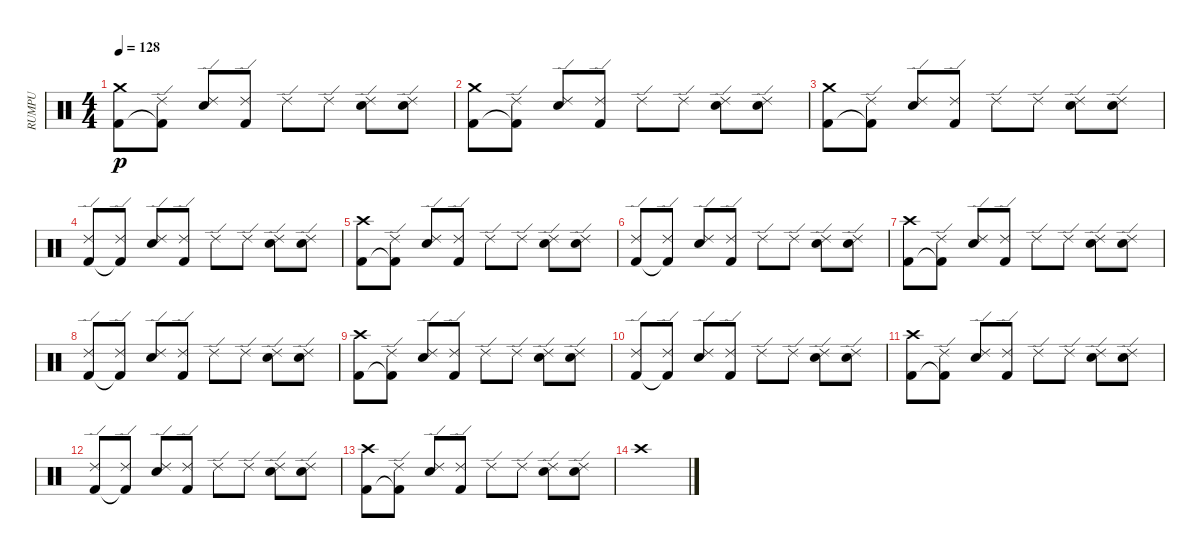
\track ("RUMPU" "RUMPU") {instrument percussion}
\staff {score}
\articulation defaults
\ts (4 4)
\tempo 128
\clef neutral
\ks c
("Crash medium (hit)" "Kick (hit) 2").8{dy p} ("Ride (edge) 2" "Kick (hit) 2"{t}).8 ("Ride (edge) 2" "Electric Snare (hit)").8 ("Ride (edge) 2" "Kick (hit) 2").8 "Ride (edge) 2".8 "Ride (edge) 2".8 ("Ride (edge) 2" "Electric Snare (hit)").8 ("Ride (edge) 2" "Electric Snare (hit)").8 |
("Crash medium (hit)" "Kick (hit) 2").8 ("Ride (edge) 2" "Kick (hit) 2"{t}).8 ("Ride (edge) 2" "Electric Snare (hit)").8 ("Ride (edge) 2" "Kick (hit) 2").8 "Ride (edge) 2".8 "Ride (edge) 2".8 ("Ride (edge) 2" "Electric Snare (hit)").8 ("Ride (edge) 2" "Electric Snare (hit)").8 |
("Crash medium (hit)" "Kick (hit) 2").8 ("Ride (edge) 2" "Kick (hit) 2"{t}).8 ("Ride (edge) 2" "Electric Snare (hit)").8 ("Ride (edge) 2" "Kick (hit) 2").8 "Ride (edge) 2".8 "Ride (edge) 2".8 ("Ride (edge) 2" "Electric Snare (hit)").8 ("Ride (edge) 2" "Electric Snare (hit)").8 |
("Ride (edge) 2" "Kick (hit) 2").8 ("Ride (edge) 2" "Kick (hit) 2"{t}).8 ("Ride (edge) 2" "Electric Snare (hit)").8 ("Ride (edge) 2" "Kick (hit) 2").8 "Ride (edge) 2".8 "Ride (edge) 2".8 ("Ride (edge) 2" "Electric Snare (hit)").8 ("Ride (edge) 2" "Electric Snare (hit)").8 |
("Crash high (hit)" "Kick (hit) 2").8 ("Ride (edge) 2" "Kick (hit) 2"{t}).8 ("Ride (edge) 2" "Electric Snare (hit)").8 ("Ride (edge) 2" "Kick (hit) 2").8 "Ride (edge) 2".8 "Ride (edge) 2".8 ("Ride (edge) 2" "Electric Snare (hit)").8 ("Ride (edge) 2" "Electric Snare (hit)").8 |
("Ride (edge) 2" "Kick (hit) 2").8 ("Ride (edge) 2" "Kick (hit) 2"{t}).8 ("Ride (edge) 2" "Electric Snare (hit)").8 ("Ride (edge) 2" "Kick (hit) 2").8 "Ride (edge) 2".8 "Ride (edge) 2".8 ("Ride (edge) 2" "Electric Snare (hit)").8 ("Ride (edge) 2" "Electric Snare (hit)").8 |
("Crash high (hit)" "Kick (hit) 2").8 ("Ride (edge) 2" "Kick (hit) 2"{t}).8 ("Ride (edge) 2" "Electric Snare (hit)").8 ("Ride (edge) 2" "Kick (hit) 2").8 "Ride (edge) 2".8 "Ride (edge) 2".8 ("Ride (edge) 2" "Electric Snare (hit)").8 ("Ride (edge) 2" "Electric Snare (hit)").8 |
("Ride (edge) 2" "Kick (hit) 2").8 ("Ride (edge) 2" "Kick (hit) 2"{t}).8 ("Ride (edge) 2" "Electric Snare (hit)").8 ("Ride (edge) 2" "Kick (hit) 2").8 "Ride (edge) 2".8 "Ride (edge) 2".8 ("Ride (edge) 2" "Electric Snare (hit)").8 ("Ride (edge) 2" "Electric Snare (hit)").8 |
("Crash high (hit)" "Kick (hit) 2").8 ("Ride (edge) 2" "Kick (hit) 2"{t}).8 ("Ride (edge) 2" "Electric Snare (hit)").8 ("Ride (edge) 2" "Kick (hit) 2").8 "Ride (edge) 2".8 "Ride (edge) 2".8 ("Ride (edge) 2" "Electric Snare (hit)").8 ("Ride (edge) 2" "Electric Snare (hit)").8 |
("Ride (edge) 2" "Kick (hit) 2").8 ("Ride (edge) 2" "Kick (hit) 2"{t}).8 ("Ride (edge) 2" "Electric Snare (hit)").8 ("Ride (edge) 2" "Kick (hit) 2").8 "Ride (edge) 2".8 "Ride (edge) 2".8 ("Ride (edge) 2" "Electric Snare (hit)").8 ("Ride (edge) 2" "Electric Snare (hit)").8 |
("Crash high (hit)" "Kick (hit) 2").8 ("Ride (edge) 2" "Kick (hit) 2"{t}).8 ("Ride (edge) 2" "Electric Snare (hit)").8 ("Ride (edge) 2" "Kick (hit) 2").8 "Ride (edge) 2".8 "Ride (edge) 2".8 ("Ride (edge) 2" "Electric Snare (hit)").8 ("Ride (edge) 2" "Electric Snare (hit)").8 |
("Ride (edge) 2" "Kick (hit) 2").8 ("Ride (edge) 2" "Kick (hit) 2"{t}).8 ("Ride (edge) 2" "Electric Snare (hit)").8 ("Ride (edge) 2" "Kick (hit) 2").8 "Ride (edge) 2".8 "Ride (edge) 2".8 ("Ride (edge) 2" "Electric Snare (hit)").8 ("Ride (edge) 2" "Electric Snare (hit)").8 |
("Crash high (hit)" "Kick (hit) 2").8 ("Ride (edge) 2" "Kick (hit) 2"{t}).8 ("Ride (edge) 2" "Electric Snare (hit)").8 ("Ride (edge) 2" "Kick (hit) 2").8 "Ride (edge) 2".8 "Ride (edge) 2".8 ("Ride (edge) 2" "Electric Snare (hit)").8 ("Ride (edge) 2" "Electric Snare (hit)").8 |
"Crash high (hit)".1
